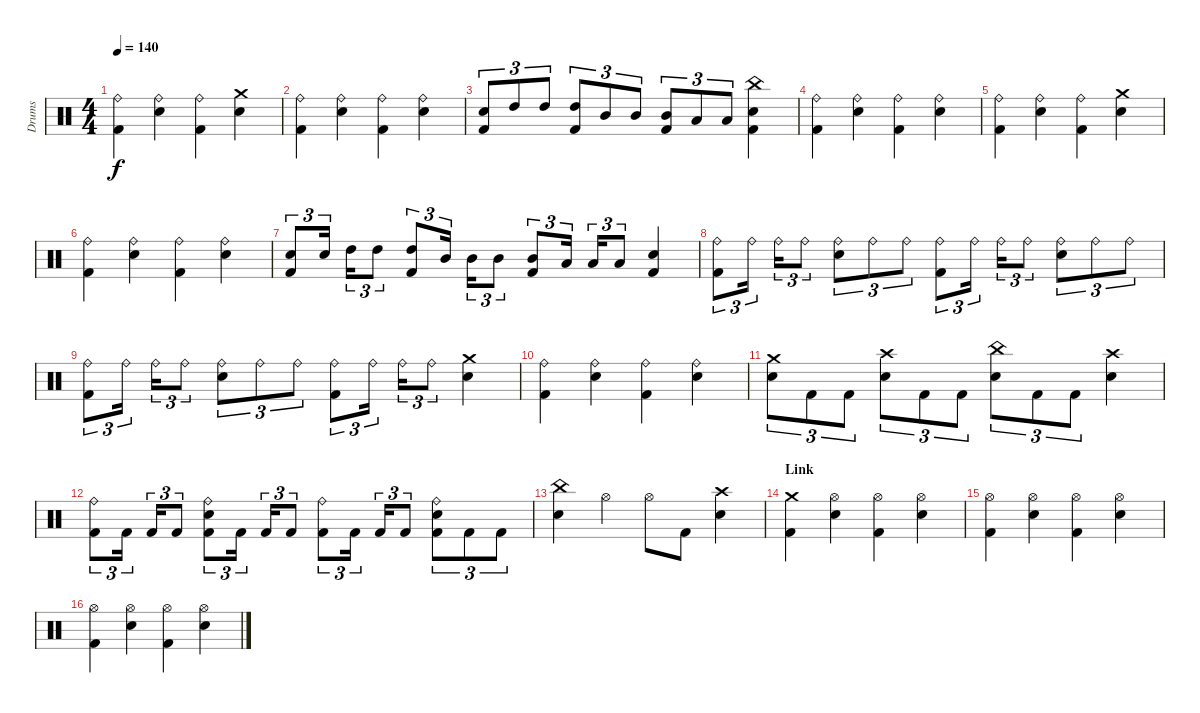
\track ("Drums" "Drums") {instrument percussion}
\staff {score}
\articulation defaults
\ts (4 4)
\tempo 140
\clef neutral
\ks c
("Ride (bell)" "Kick (hit) 2").4{dy f} ("Ride (bell)" "Electric Snare (hit)").4 ("Ride (bell)" "Kick (hit) 2").4 ("Crash medium (hit)" "Electric Snare (hit)").4 |
("Ride (bell)" "Kick (hit) 2").4 ("Ride (bell)" "Electric Snare (hit)").4 ("Ride (bell)" "Kick (hit) 2").4 ("Ride (bell)" "Electric Snare (hit)").4 |
("Electric Snare (hit)" "Kick (hit) 2").8{tu (3 2)} "High Tom (hit)".8{tu (3 2)} "High Tom (hit)".8{tu (3 2)} ("High Tom (hit)" "Kick (hit) 2").8{tu (3 2)} "Mid Tom (hit)".8{tu (3 2)} "Mid Tom (hit)".8{tu (3 2)} ("Mid Tom (hit)" "Kick (hit) 2").8{tu (3 2)} "Low Tom (hit)".8{tu (3 2)} "Low Tom (hit)".8{tu (3 2)} ("China (hit)" "Electric Snare (hit)" "Kick (hit) 2").4 |
("Ride (bell)" "Kick (hit) 2").4 ("Ride (bell)" "Electric Snare (hit)").4 ("Ride (bell)" "Kick (hit) 2").4 ("Ride (bell)" "Electric Snare (hit)").4 |
("Ride (bell)" "Kick (hit) 2").4 ("Ride (bell)" "Electric Snare (hit)").4 ("Ride (bell)" "Kick (hit) 2").4 ("Crash medium (hit)" "Electric Snare (hit)").4 |
("Ride (bell)" "Kick (hit) 2").4 ("Ride (bell)" "Electric Snare (hit)").4 ("Ride (bell)" "Kick (hit) 2").4 ("Ride (bell)" "Electric Snare (hit)").4 |
("Electric Snare (hit)" "Kick (hit) 2").8{tu (3 2)} "Electric Snare (hit)".16{tu (3 2)} "High Tom (hit)".16{tu (3 2)} "High Tom (hit)".8{tu (3 2)} ("High Tom (hit)" "Kick (hit) 2").8{tu (3 2)} "Mid Tom (hit)".16{tu (3 2)} "Mid Tom (hit)".16{tu (3 2)} "Mid Tom (hit)".8{tu (3 2)} ("Mid Tom (hit)" "Kick (hit) 2").8{tu (3 2)} "Low Tom (hit)".16{tu (3 2)} "Low Tom (hit)".16{tu (3 2)} "Low Tom (hit)".8{tu (3 2)} ("Electric Snare (hit)" "Kick (hit) 2").4 |
("Ride (bell)" "Kick (hit) 2").8{tu (3 2)} "Ride (bell)".16{tu (3 2)} "Ride (bell)".16{tu (3 2)} "Ride (bell)".8{tu (3 2)} ("Ride (bell)" "Electric Snare (hit)").8{tu (3 2)} "Ride (bell)".8{tu (3 2)} "Ride (bell)".8{tu (3 2)} ("Ride (bell)" "Kick (hit) 2").8{tu (3 2)} "Ride (bell)".16{tu (3 2)} "Ride (bell)".16{tu (3 2)} "Ride (bell)".8{tu (3 2)} ("Ride (bell)" "Electric Snare (hit)").8{tu (3 2)} "Ride (bell)".8{tu (3 2)} "Ride (bell)".8{tu (3 2)} |
("Ride (bell)" "Kick (hit) 2").8{tu (3 2)} "Ride (bell)".16{tu (3 2)} "Ride (bell)".16{tu (3 2)} "Ride (bell)".8{tu (3 2)} ("Ride (bell)" "Electric Snare (hit)").8{tu (3 2)} "Ride (bell)".8{tu (3 2)} "Ride (bell)".8{tu (3 2)} ("Ride (bell)" "Kick (hit) 2").8{tu (3 2)} "Ride (bell)".16{tu (3 2)} "Ride (bell)".16{tu (3 2)} "Ride (bell)".8{tu (3 2)} ("Crash medium (hit)" "Electric Snare (hit)").4 |
("Ride (bell)" "Kick (hit) 2").4 ("Ride (bell)" "Electric Snare (hit)").4 ("Ride (bell)" "Kick (hit) 2").4 ("Ride (bell)" "Electric Snare (hit)").4 |
("Crash medium (hit)" "Electric Snare (hit)").8{tu (3 2)} "Kick (hit) 2".8{tu (3 2)} "Kick (hit) 2".8{tu (3 2)} ("Crash high (hit)" "Electric Snare (hit)").8{tu (3 2)} "Kick (hit) 2".8{tu (3 2)} "Kick (hit) 2".8{tu (3 2)} ("China (hit)" "Electric Snare (hit)").8{tu (3 2)} "Kick (hit) 2".8{tu (3 2)} "Kick (hit) 2".8{tu (3 2)} ("Crash high (hit)" "Electric Snare (hit)").4 |
("Ride (bell)" "Kick (hit) 2").8{tu (3 2)} "Kick (hit) 2".16{tu (3 2)} "Kick (hit) 2".16{tu (3 2)} "Kick (hit) 2".8{tu (3 2)} ("Ride (bell)" "Electric Snare (hit)" "Kick (hit) 2").8{tu (3 2)} "Kick (hit) 2".16{tu (3 2)} "Kick (hit) 2".16{tu (3 2)} "Kick (hit) 2".8{tu (3 2)} ("Ride (bell)" "Kick (hit) 2").8{tu (3 2)} "Kick (hit) 2".16{tu (3 2)} "Kick (hit) 2".16{tu (3 2)} "Kick (hit) 2".8{tu (3 2)} ("Ride (bell)" "Electric Snare (hit)" "Kick (hit) 2").8{tu (3 2)} "Kick (hit) 2".8{tu (3 2)} "Kick (hit) 2".8{tu (3 2)} |
("China (hit)" "Electric Snare (hit)").4 "Hi-Hat (open)".4 "Hi-Hat (open)".8 "Kick (hit) 2".8 ("Crash high (hit)" "Electric Snare (hit)").4 |
\section ("" "Link")
("Crash medium (hit)" "Kick (hit) 2").4 ("Hi-Hat (open)" "Electric Snare (hit)").4 ("Hi-Hat (open)" "Kick (hit) 2").4 ("Hi-Hat (open)" "Electric Snare (hit)").4 |
("Hi-Hat (open)" "Kick (hit) 2").4 ("Hi-Hat (open)" "Electric Snare (hit)").4 ("Hi-Hat (open)" "Kick (hit) 2").4 ("Hi-Hat (open)" "Electric Snare (hit)").4 |
("Hi-Hat (open)" "Kick (hit) 2").4 ("Hi-Hat (open)" "Electric Snare (hit)").4 ("Hi-Hat (open)" "Kick (hit) 2").4 ("Hi-Hat (open)" "Electric Snare (hit)").4
